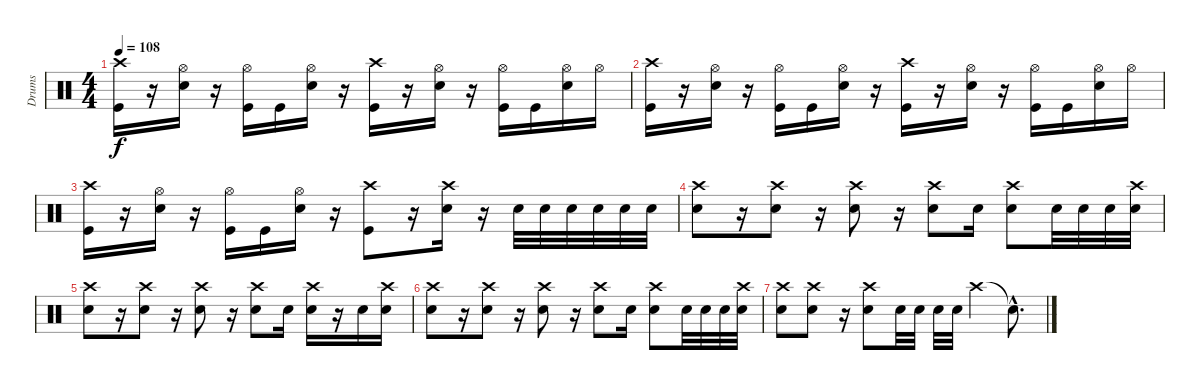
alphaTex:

\track ("Drums" "Drums") {instrument percussion}
\staff {score}
\articulation defaults
\ts (4 4)
\tempo 108
\clef neutral
\ks c
("Crash high (hit)" "Kick (hit)").16{dy f} r.16 ("Hi-Hat (open)" "Snare (hit) 2").16 r.16 ("Hi-Hat (open)" "Kick (hit)").16 "Kick (hit)".16 ("Hi-Hat (open)" "Snare (hit) 2").16 r.16 ("Crash high (hit)" "Kick (hit)").16 r.16 ("Hi-Hat (open)" "Snare (hit) 2").16 r.16 ("Hi-Hat (open)" "Kick (hit)").16 "Kick (hit)".16 ("Hi-Hat (open)" "Snare (hit) 2").16 "Hi-Hat (open)".16 |
("Crash high (hit)" "Kick (hit)").16 r.16 ("Hi-Hat (open)" "Snare (hit) 2").16 r.16 ("Hi-Hat (open)" "Kick (hit)").16 "Kick (hit)".16 ("Hi-Hat (open)" "Snare (hit) 2").16 r.16 ("Crash high (hit)" "Kick (hit)").16 r.16 ("Hi-Hat (open)" "Snare (hit) 2").16 r.16 ("Hi-Hat (open)" "Kick (hit)").16 "Kick (hit)".16 ("Hi-Hat (open)" "Snare (hit) 2").16 "Hi-Hat (open)".16 |
("Crash high (hit)" "Kick (hit)").16 r.16 ("Hi-Hat (open)" "Snare (hit) 2").16 r.16 ("Hi-Hat (open)" "Kick (hit)").16 "Kick (hit)".16 ("Hi-Hat (open)" "Snare (hit) 2").16 r.16 ("Crash high (hit)" "Kick (hit)").8 r.16 ("Crash high (hit)" "Snare (hit) 2").16 r.16 "Snare (hit) 2".32 "Snare (hit) 2".32 "Snare (hit) 2".32 "Snare (hit) 2".32 "Snare (hit) 2".32 "Snare (hit) 2".32 |
("Crash high (hit)" "Snare (hit) 2").8 r.16 ("Crash high (hit)" "Snare (hit) 2").8 r.16 ("Crash high (hit)" "Snare (hit) 2").8 r.16 ("Crash high (hit)" "Snare (hit) 2").8 "Snare (hit) 2".16 ("Crash high (hit)" "Snare (hit) 2").8 "Snare (hit) 2".32 "Snare (hit) 2".32 "Snare (hit) 2".32 ("Crash high (hit)" "Snare (hit) 2").32 |
("Crash high (hit)" "Snare (hit) 2").8 r.16 ("Crash high (hit)" "Snare (hit) 2").8 r.16 ("Crash high (hit)" "Snare (hit) 2").8 r.16 ("Crash high (hit)" "Snare (hit) 2").8 "Snare (hit) 2".16 ("Crash high (hit)" "Snare (hit) 2").16 r.16 "Snare (hit) 2".16 ("Crash high (hit)" "Snare (hit) 2").16 |
("Crash high (hit)" "Snare (hit) 2").8 r.16 ("Crash high (hit)" "Snare (hit) 2").8 r.16 ("Crash high (hit)" "Snare (hit) 2").8 r.16 ("Crash high (hit)" "Snare (hit) 2").8 "Snare (hit) 2".16 ("Crash high (hit)" "Snare (hit) 2").8 "Snare (hit) 2".32 "Snare (hit) 2".32 "Snare (hit) 2".32 ("Crash high (hit)" "Snare (hit) 2").32 |
("Crash high (hit)" "Snare (hit) 2").8 ("Crash high (hit)" "Snare (hit) 2").8 r.16 ("Crash high (hit)" "Snare (hit) 2").8 "Snare (hit) 2".32 "Snare (hit) 2".32 "Snare (hit) 2".32 "Snare (hit) 2".32 "Crash high (hit)".4 "Snare (hit)"{hac t}.8{d}
